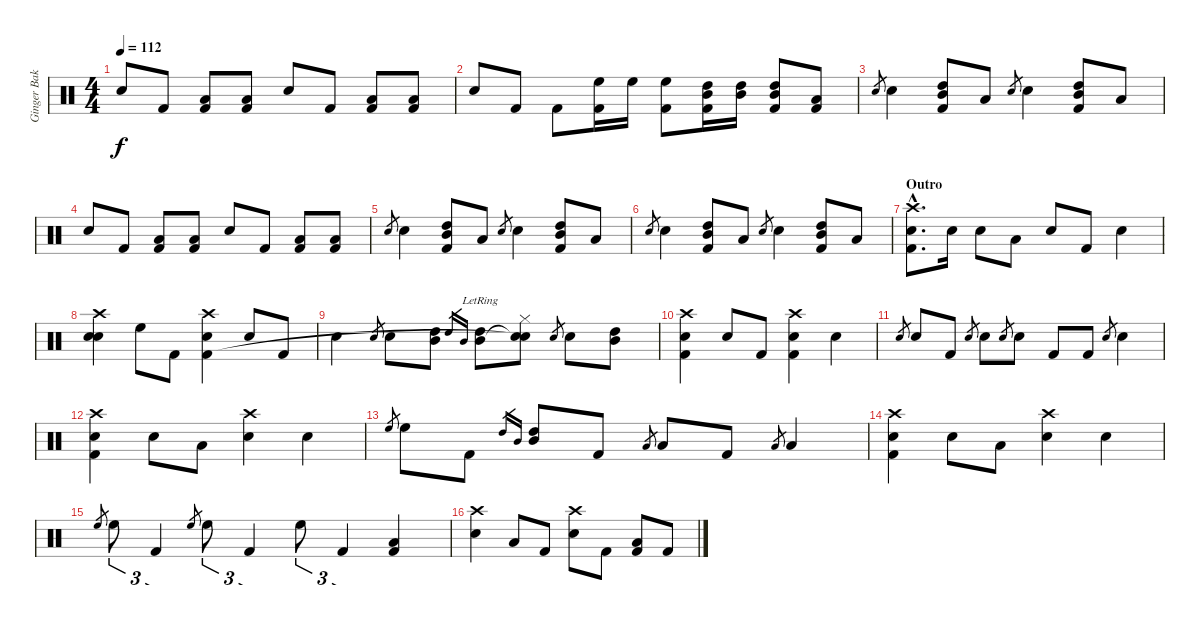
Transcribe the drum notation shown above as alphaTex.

\track ("Ginger Baker" "Ginger Bak") {instrument percussion}
\staff {score}
\articulation defaults
\ts (4 4)
\tempo 112
\clef neutral
\ks c "Snare (hit) 2".8{dy f} "Kick (hit) 2".8
("Low Tom (hit)" "Kick (hit) 2").8 ("Low Tom (hit)" "Kick (hit) 2").8 "Snare (hit) 2".8 "Kick (hit) 2".8 ("Low Tom (hit)" "Kick (hit) 2").8 ("Low Tom (hit)" "Kick (hit) 2").8 |
"Snare (hit) 2".8 "Kick (hit) 2".8 "Kick (hit) 2".8 ("High Floor Tom (hit)" "Kick (hit) 2").16 "High Floor Tom (hit)".16 ("High Floor Tom (hit)" "Kick (hit) 2").8 ("High Tom (hit)" "Mid Tom (hit)" "Kick (hit) 2").16 ("High Tom (hit)" "Mid Tom (hit)").16 ("High Tom (hit)" "Mid Tom (hit)" "Kick (hit) 2").8 ("Low Tom (hit)" "Kick (hit) 2").8 |
"Snare (hit) 2".8{gr} "Snare (hit) 2".4 ("High Tom (hit)" "Mid Tom (hit)" "Kick (hit) 2").8 "Low Tom (hit)".8 "Snare (hit) 2".8{gr} "Snare (hit) 2".4 ("High Tom (hit)" "Mid Tom (hit)" "Kick (hit) 2").8 "Low Tom (hit)".8 |
"Snare (hit) 2".8 "Kick (hit) 2".8 ("Low Tom (hit)" "Kick (hit) 2").8 ("Low Tom (hit)" "Kick (hit) 2").8 "Snare (hit) 2".8 "Kick (hit) 2".8 ("Low Tom (hit)" "Kick (hit) 2").8 ("Low Tom (hit)" "Kick (hit) 2").8 |
"Snare (hit) 2".8{gr} "Snare (hit) 2".4 ("High Tom (hit)" "Mid Tom (hit)" "Kick (hit) 2").8 "Low Tom (hit)".8 "Snare (hit) 2".8{gr} "Snare (hit) 2".4 ("High Tom (hit)" "Mid Tom (hit)" "Kick (hit) 2").8 "Low Tom (hit)".8 |
"Snare (hit) 2".8{gr} "Snare (hit) 2".4 ("High Tom (hit)" "Mid Tom (hit)" "Kick (hit) 2").8 "Low Tom (hit)".8 "Snare (hit) 2".8{gr} "Snare (hit) 2".4 ("High Tom (hit)" "Mid Tom (hit)" "Kick (hit) 2").8 "Low Tom (hit)".8 |
\section ("" "Outro")
("Crash high (hit)"{hac} "Snare (hit) 2"{hac} "Kick (hit) 2"{hac}).8{d} "Snare (hit) 2".16 "Snare (hit) 2".8 "Low Tom (hit)".8 "Snare (hit) 2".8 "Kick (hit) 2".8 "Snare (hit) 2".4 |
("Crash high (hit)" "Snare (hit) 2" "Snare (hit) 2").4 "High Floor Tom (hit)".8 "Kick (hit) 2".8 ("Crash high (hit)" "Snare (hit) 2" "Kick (hit) 2").4 "Snare (hit) 2".8 "Kick (hit) 2".8 |
"Snare (hit) 2".4 "Snare (hit) 2".8{gr} "Snare (hit) 2".8 ("High Tom (hit)" "Mid Tom (hit)").8 "High Tom (hit)".16{gr} "Mid Tom (hit)".16{gr} ("High Tom (hit)"{lr} "Mid Tom (hit)"{lr}).8 ("Hi-Hat (closed)" "Snare (hit)"{t} "Snare (hit)"{t}).8 "Snare (hit) 2".8{gr} "Snare (hit) 2".8 ("High Tom (hit)" "Mid Tom (hit)").8 |
("Crash high (hit)" "Snare (hit) 2" "Kick (hit) 2").4 "Snare (hit) 2".8 "Kick (hit) 2".8 ("Crash high (hit)" "Snare (hit) 2" "Kick (hit) 2").4 "Snare (hit) 2".4 |
"Snare (hit) 2".8{gr} "Snare (hit) 2".8 "Kick (hit) 2".8 "Snare (hit) 2".8{gr} "Snare (hit) 2".8 "Snare (hit) 2".8{gr} "Snare (hit) 2".8 "Kick (hit) 2".8 "Kick (hit) 2".8 "Snare (hit) 2".8{gr} "Snare (hit) 2".4 |
("Crash high (hit)" "Snare (hit) 2" "Kick (hit) 2").4 "Snare (hit) 2".8 "Low Tom (hit)".8 ("Crash high (hit)" "Snare (hit) 2").4 "Snare (hit) 2".4 |
"High Floor Tom (hit)".8{gr} "High Floor Tom (hit)".8 "Kick (hit) 2".8 "High Tom (hit)".16{gr} "Mid Tom (hit)".16{gr} ("High Tom (hit)" "Mid Tom (hit)").8 "Kick (hit) 2".8 "Low Tom (hit)".8{gr} "Low Tom (hit)".8 "Kick (hit) 2".8 "Low Tom (hit)".8{gr} "Low Tom (hit)".4 |
("Crash high (hit)" "Snare (hit) 2" "Kick (hit) 2").4 "Snare (hit) 2".8 "Low Tom (hit)".8 ("Crash high (hit)" "Snare (hit) 2").4 "Snare (hit) 2".4 |
"High Floor Tom (hit)".8{gr} "High Floor Tom (hit)".8{tu (3 2)} "Kick (hit) 2".4{tu (3 2)} "High Floor Tom (hit)".8{gr} "High Floor Tom (hit)".8{tu (3 2)} "Kick (hit) 2".4{tu (3 2)} "High Floor Tom (hit)".8{tu (3 2)} "Kick (hit) 2".4{tu (3 2)} ("Low Tom (hit)" "Kick (hit) 2").4 |
("Crash high (hit)" "Snare (hit) 2").4 "Low Tom (hit)".8 "Kick (hit) 2".8 ("Crash high (hit)" "Snare (hit) 2").8 "Kick (hit) 2".8 ("Low Tom (hit)" "Kick (hit) 2").8 "Kick (hit) 2".8
